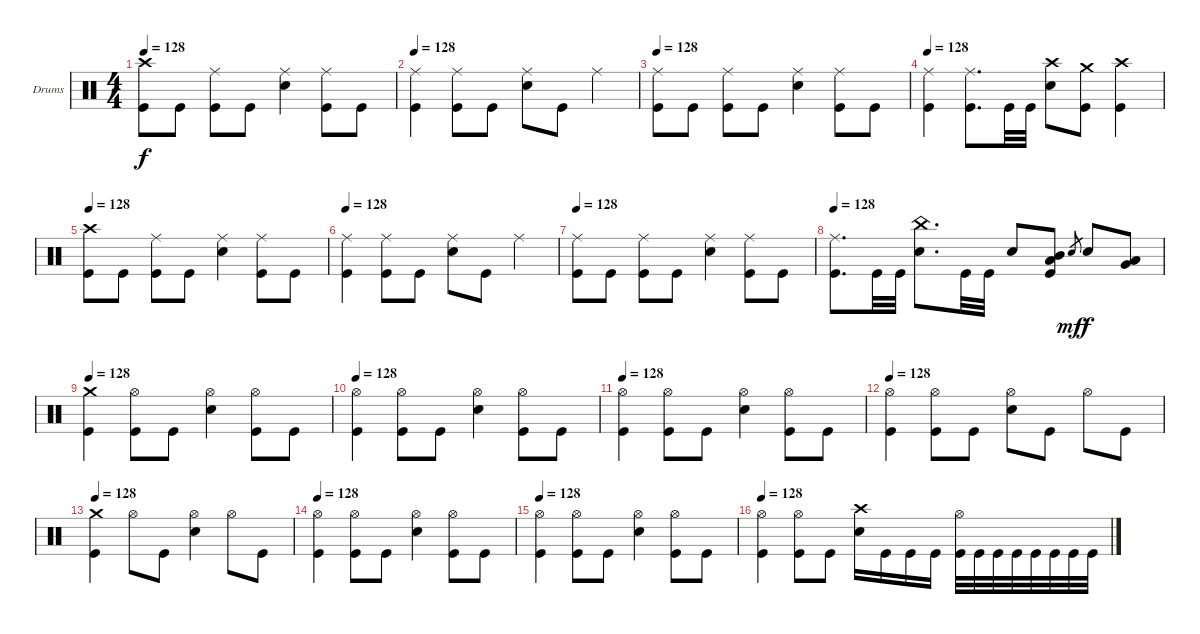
\bracketExtendMode groupsimilarinstruments
\firstSystemTrackNameOrientation horizontal
\otherSystemsTrackNameOrientation horizontal
\track ("Drumkit" "Drums") {instrument percussion}
\staff {score}
\articulation defaults
\ts (4 4)
\tempo 128
\clef neutral
\ks c
("Crash high (hit)" "Kick (hit)").8{dy f} "Kick (hit)".8 ("Ride (middle)" "Kick (hit)").8 "Kick (hit)".8 ("Ride (middle)" "Snare (hit) 2").4 ("Ride (middle)" "Kick (hit)").8 "Kick (hit)".8 |
\tempo 128
("Ride (middle)" "Kick (hit)").4 ("Ride (middle)" "Kick (hit)").8 "Kick (hit)".8 ("Ride (middle)" "Snare (hit) 2").8 "Kick (hit)".8 "Ride (middle)".4 |
\tempo 128
("Ride (middle)" "Kick (hit)").8 "Kick (hit)".8 ("Ride (middle)" "Kick (hit)").8 "Kick (hit)".8 ("Ride (middle)" "Snare (hit) 2").4 ("Ride (middle)" "Kick (hit)").8 "Kick (hit)".8 |
\tempo 128
("Ride (middle)" "Kick (hit)").4 ("Ride (middle)" "Kick (hit)").8{d} "Kick (hit)".32 "Kick (hit)".32 ("Crash high (hit)" "Snare (hit) 2").8 ("Crash medium (hit)" "Kick (hit)").8 ("Crash high (hit)" "Kick (hit)").4 |
\tempo 128
("Crash high (hit)" "Kick (hit)").8 "Kick (hit)".8 ("Ride (middle)" "Kick (hit)").8 "Kick (hit)".8 ("Ride (middle)" "Snare (hit) 2").4 ("Ride (middle)" "Kick (hit)").8 "Kick (hit)".8 |
\tempo 128
("Ride (middle)" "Kick (hit)").4 ("Ride (middle)" "Kick (hit)").8 "Kick (hit)".8 ("Ride (middle)" "Snare (hit) 2").8 "Kick (hit)".8 "Ride (middle)".4 |
\tempo 128
("Ride (middle)" "Kick (hit)").8 "Kick (hit)".8 ("Ride (middle)" "Kick (hit)").8 "Kick (hit)".8 ("Ride (middle)" "Snare (hit) 2").4 ("Ride (middle)" "Kick (hit)").8 "Kick (hit)".8 |
\tempo 128
("Ride (middle)" "Kick (hit)").8{d} "Kick (hit)".32 "Kick (hit)".32 ("China (hit)" "Snare (hit) 2").8{d} "Kick (hit)".32 "Kick (hit)".32 "Snare (hit) 2".8 ("Kick (hit)" "Low Tom (hit)" "Mid Tom (hit)").8 "Snare (hit) 2".8{gr dy mf} "Snare (hit) 2".8{dy f} ("Low Tom (hit)" "Very Low Tom (hit)").8 |
\tempo 128
("Crash medium (hit)" "Kick (hit)").4 ("Hi-Hat (open)" "Kick (hit)").8 "Kick (hit)".8 ("Hi-Hat (open)" "Snare (hit) 2").4 ("Hi-Hat (open)" "Kick (hit)").8 "Kick (hit)".8 |
\tempo 128
("Hi-Hat (open)" "Kick (hit)").4 ("Hi-Hat (open)" "Kick (hit)").8 "Kick (hit)".8 ("Hi-Hat (open)" "Snare (hit) 2").4 ("Hi-Hat (open)" "Kick (hit)").8 "Kick (hit)".8 |
\tempo 128
("Hi-Hat (open)" "Kick (hit)").4 ("Hi-Hat (open)" "Kick (hit)").8 "Kick (hit)".8 ("Hi-Hat (open)" "Snare (hit) 2").4 ("Hi-Hat (open)" "Kick (hit)").8 "Kick (hit)".8 |
\tempo 128
("Hi-Hat (open)" "Kick (hit)").4 ("Hi-Hat (open)" "Kick (hit)").8 "Kick (hit)".8 ("Hi-Hat (open)" "Snare (hit) 2").8 "Kick (hit)".8 "Hi-Hat (open)".8 "Kick (hit)".8 |
\tempo 128
("Crash medium (hit)" "Kick (hit)").4 "Hi-Hat (open)".8 "Kick (hit)".8 ("Hi-Hat (open)" "Snare (hit) 2").4 "Hi-Hat (open)".8 "Kick (hit)".8 |
\tempo 128
("Hi-Hat (open)" "Kick (hit)").4 ("Hi-Hat (open)" "Kick (hit)").8 "Kick (hit)".8 ("Hi-Hat (open)" "Snare (hit) 2").4 ("Hi-Hat (open)" "Kick (hit)").8 "Kick (hit)".8 |
\tempo 128
("Hi-Hat (open)" "Kick (hit)").4 ("Hi-Hat (open)" "Kick (hit)").8 "Kick (hit)".8 ("Hi-Hat (open)" "Snare (hit) 2").4 ("Hi-Hat (open)" "Kick (hit)").8 "Kick (hit)".8 |
\tempo 128
("Hi-Hat (open)" "Kick (hit)").4 ("Hi-Hat (open)" "Kick (hit)").8 "Kick (hit)".8 ("Crash high (hit)" "Snare (hit) 2").16 "Kick (hit)".16 "Kick (hit)".16 "Kick (hit)".16 ("Hi-Hat (open)" "Kick (hit)").32 "Kick (hit)".32 "Kick (hit)".32 "Kick (hit)".32 "Kick (hit)".32 "Kick (hit)".32 "Kick (hit)".32 "Kick (hit)".32
